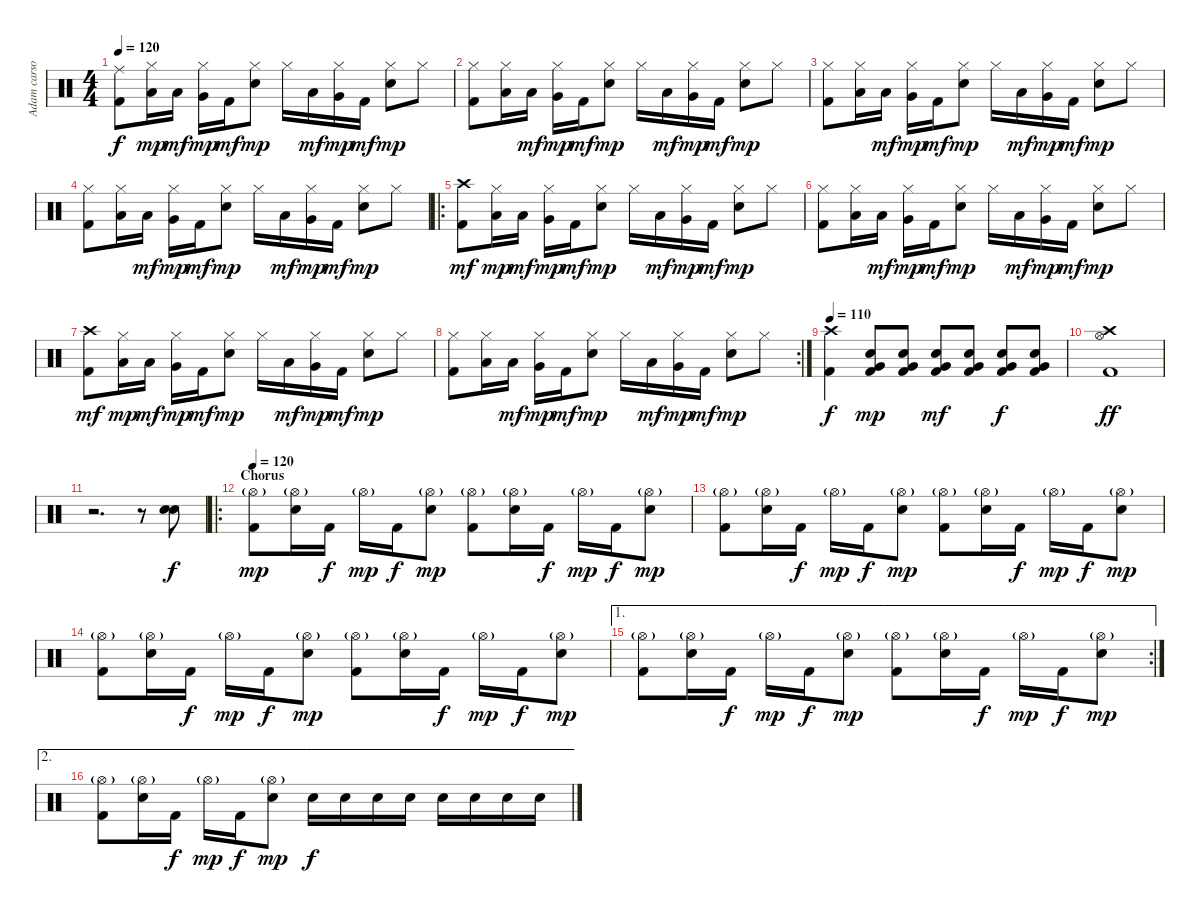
\track ("Adam carson" "Adam carso") {instrument percussion}
\staff {score}
\articulation defaults
\ts (4 4)
\tempo 120
\clef neutral
\ks c
("Kick (hit) 2" "Ride (middle)").8{dy f} ("Low Tom (hit)" "Hi-Hat (closed)").16{dy mp} "Low Tom (hit)".16{dy mf} ("Very Low Tom (hit)" "Hi-Hat (closed)").16{dy mp} "Kick (hit) 2".16{dy mf} ("Snare (hit) 2" "Hi-Hat (closed)").8{dy mp} "Hi-Hat (closed)".16 "Low Tom (hit)".16{dy mf} ("Very Low Tom (hit)" "Hi-Hat (closed)").16{dy mp} "Kick (hit) 2".16{dy mf} ("Snare (hit) 2" "Hi-Hat (closed)").8{dy mp} "Hi-Hat (closed)".8 |
("Kick (hit) 2" "Hi-Hat (closed)").8 ("Low Tom (hit)" "Hi-Hat (closed)").16 "Low Tom (hit)".16{dy mf} ("Very Low Tom (hit)" "Hi-Hat (closed)").16{dy mp} "Kick (hit) 2".16{dy mf} ("Snare (hit) 2" "Hi-Hat (closed)").8{dy mp} "Hi-Hat (closed)".16 "Low Tom (hit)".16{dy mf} ("Very Low Tom (hit)" "Hi-Hat (closed)").16{dy mp} "Kick (hit) 2".16{dy mf} ("Snare (hit) 2" "Hi-Hat (closed)").8{dy mp} "Hi-Hat (closed)".8 |
("Kick (hit) 2" "Hi-Hat (closed)").8 ("Low Tom (hit)" "Hi-Hat (closed)").16 "Low Tom (hit)".16{dy mf} ("Very Low Tom (hit)" "Hi-Hat (closed)").16{dy mp} "Kick (hit) 2".16{dy mf} ("Snare (hit) 2" "Hi-Hat (closed)").8{dy mp} "Hi-Hat (closed)".16 "Low Tom (hit)".16{dy mf} ("Very Low Tom (hit)" "Hi-Hat (closed)").16{dy mp} "Kick (hit) 2".16{dy mf} ("Snare (hit) 2" "Hi-Hat (closed)").8{dy mp} "Hi-Hat (closed)".8 |
("Kick (hit) 2" "Hi-Hat (closed)").8 ("Low Tom (hit)" "Hi-Hat (closed)").16 "Low Tom (hit)".16{dy mf} ("Very Low Tom (hit)" "Hi-Hat (closed)").16{dy mp} "Kick (hit) 2".16{dy mf} ("Snare (hit) 2" "Hi-Hat (closed)").8{dy mp} "Hi-Hat (closed)".16 "Low Tom (hit)".16{dy mf} ("Very Low Tom (hit)" "Hi-Hat (closed)").16{dy mp} "Kick (hit) 2".16{dy mf} ("Snare (hit) 2" "Hi-Hat (closed)").8{dy mp} "Hi-Hat (closed)".8 |
\ro
("Kick (hit) 2" "Crash high (hit)").8{dy mf} ("Low Tom (hit)" "Hi-Hat (closed)").16{dy mp} "Low Tom (hit)".16{dy mf} ("Very Low Tom (hit)" "Hi-Hat (closed)").16{dy mp} "Kick (hit) 2".16{dy mf} ("Snare (hit) 2" "Hi-Hat (closed)").8{dy mp} "Hi-Hat (closed)".16 "Low Tom (hit)".16{dy mf} ("Very Low Tom (hit)" "Hi-Hat (closed)").16{dy mp} "Kick (hit) 2".16{dy mf} ("Snare (hit) 2" "Hi-Hat (closed)").8{dy mp} "Hi-Hat (closed)".8 |
("Kick (hit) 2" "Hi-Hat (closed)").8 ("Low Tom (hit)" "Hi-Hat (closed)").16 "Low Tom (hit)".16{dy mf} ("Very Low Tom (hit)" "Hi-Hat (closed)").16{dy mp} "Kick (hit) 2".16{dy mf} ("Snare (hit) 2" "Hi-Hat (closed)").8{dy mp} "Hi-Hat (closed)".16 "Low Tom (hit)".16{dy mf} ("Very Low Tom (hit)" "Hi-Hat (closed)").16{dy mp} "Kick (hit) 2".16{dy mf} ("Snare (hit) 2" "Hi-Hat (closed)").8{dy mp} "Hi-Hat (closed)".8 |
("Kick (hit) 2" "Crash high (hit)").8{dy mf} ("Low Tom (hit)" "Hi-Hat (closed)").16{dy mp} "Low Tom (hit)".16{dy mf} ("Very Low Tom (hit)" "Hi-Hat (closed)").16{dy mp} "Kick (hit) 2".16{dy mf} ("Snare (hit) 2" "Hi-Hat (closed)").8{dy mp} "Hi-Hat (closed)".16 "Low Tom (hit)".16{dy mf} ("Very Low Tom (hit)" "Hi-Hat (closed)").16{dy mp} "Kick (hit) 2".16{dy mf} ("Snare (hit) 2" "Hi-Hat (closed)").8{dy mp} "Hi-Hat (closed)".8 |
\rc 2
("Kick (hit) 2" "Hi-Hat (closed)").8 ("Low Tom (hit)" "Hi-Hat (closed)").16 "Low Tom (hit)".16{dy mf} ("Very Low Tom (hit)" "Hi-Hat (closed)").16{dy mp} "Kick (hit) 2".16{dy mf} ("Snare (hit) 2" "Hi-Hat (closed)").8{dy mp} "Hi-Hat (closed)".16 "Low Tom (hit)".16{dy mf} ("Very Low Tom (hit)" "Hi-Hat (closed)").16{dy mp} "Kick (hit) 2".16{dy mf} ("Snare (hit) 2" "Hi-Hat (closed)").8{dy mp} "Hi-Hat (closed)".8 |
\tempo 110
("Kick (hit) 2" "Crash high (hit)").4{dy f} ("Kick (hit) 2" "Snare (hit) 2" "Very Low Tom (hit)").8{dy mp} ("Kick (hit) 2" "Snare (hit) 2" "Very Low Tom (hit)").8 ("Kick (hit) 2" "Snare (hit) 2" "Very Low Tom (hit)").8{dy mf} ("Kick (hit) 2" "Snare (hit) 2" "Very Low Tom (hit)").8 ("Kick (hit) 2" "Snare (hit) 2" "Very Low Tom (hit)").8{dy f} ("Kick (hit) 2" "Snare (hit) 2" "Very Low Tom (hit)").8 |
("Kick (hit) 2" "Crash high (hit)" "Hi-Hat (open)").1{dy ff} |
r.2{d} r.8 ("Snare (hit) 2" "Snare (hit) 2").8{dy f} |
\ro
\section ("" "Chorus")
\tempo 120
("Kick (hit) 2" "Hi-Hat (open)"{g}).8{dy mp} ("Hi-Hat (open)"{g} "Snare (hit) 2").16 "Kick (hit) 2".16{dy f} "Hi-Hat (open)"{g}.16{dy mp} "Kick (hit) 2".16{dy f} ("Hi-Hat (open)"{g} "Snare (hit) 2").8{dy mp} ("Kick (hit) 2" "Hi-Hat (open)"{g}).8 ("Hi-Hat (open)"{g} "Snare (hit) 2").16 "Kick (hit) 2".16{dy f} "Hi-Hat (open)"{g}.16{dy mp} "Kick (hit) 2".16{dy f} ("Hi-Hat (open)"{g} "Snare (hit) 2").8{dy mp} |
("Kick (hit) 2" "Hi-Hat (open)"{g}).8 ("Hi-Hat (open)"{g} "Snare (hit) 2").16 "Kick (hit) 2".16{dy f} "Hi-Hat (open)"{g}.16{dy mp} "Kick (hit) 2".16{dy f} ("Hi-Hat (open)"{g} "Snare (hit) 2").8{dy mp} ("Kick (hit) 2" "Hi-Hat (open)"{g}).8 ("Hi-Hat (open)"{g} "Snare (hit) 2").16 "Kick (hit) 2".16{dy f} "Hi-Hat (open)"{g}.16{dy mp} "Kick (hit) 2".16{dy f} ("Hi-Hat (open)"{g} "Snare (hit) 2").8{dy mp} |
("Kick (hit) 2" "Hi-Hat (open)"{g}).8 ("Hi-Hat (open)"{g} "Snare (hit) 2").16 "Kick (hit) 2".16{dy f} "Hi-Hat (open)"{g}.16{dy mp} "Kick (hit) 2".16{dy f} ("Hi-Hat (open)"{g} "Snare (hit) 2").8{dy mp} ("Kick (hit) 2" "Hi-Hat (open)"{g}).8 ("Hi-Hat (open)"{g} "Snare (hit) 2").16 "Kick (hit) 2".16{dy f} "Hi-Hat (open)"{g}.16{dy mp} "Kick (hit) 2".16{dy f} ("Hi-Hat (open)"{g} "Snare (hit) 2").8{dy mp} |
\ae 1
\rc 2
("Kick (hit) 2" "Hi-Hat (open)"{g}).8 ("Hi-Hat (open)"{g} "Snare (hit) 2").16 "Kick (hit) 2".16{dy f} "Hi-Hat (open)"{g}.16{dy mp} "Kick (hit) 2".16{dy f} ("Hi-Hat (open)"{g} "Snare (hit) 2").8{dy mp} ("Kick (hit) 2" "Hi-Hat (open)"{g}).8 ("Hi-Hat (open)"{g} "Snare (hit) 2").16 "Kick (hit) 2".16{dy f} "Hi-Hat (open)"{g}.16{dy mp} "Kick (hit) 2".16{dy f} ("Hi-Hat (open)"{g} "Snare (hit) 2").8{dy mp} |
\ae 2
("Kick (hit) 2" "Hi-Hat (open)"{g}).8 ("Hi-Hat (open)"{g} "Snare (hit) 2").16 "Kick (hit) 2".16{dy f} "Hi-Hat (open)"{g}.16{dy mp} "Kick (hit) 2".16{dy f} ("Hi-Hat (open)"{g} "Snare (hit) 2").8{dy mp} "Snare (hit) 2".16{dy f} "Snare (hit) 2".16 "Snare (hit) 2".16 "Snare (hit) 2".16 "Snare (hit) 2".16 "Snare (hit) 2".16 "Snare (hit) 2".16 "Snare (hit) 2".16
